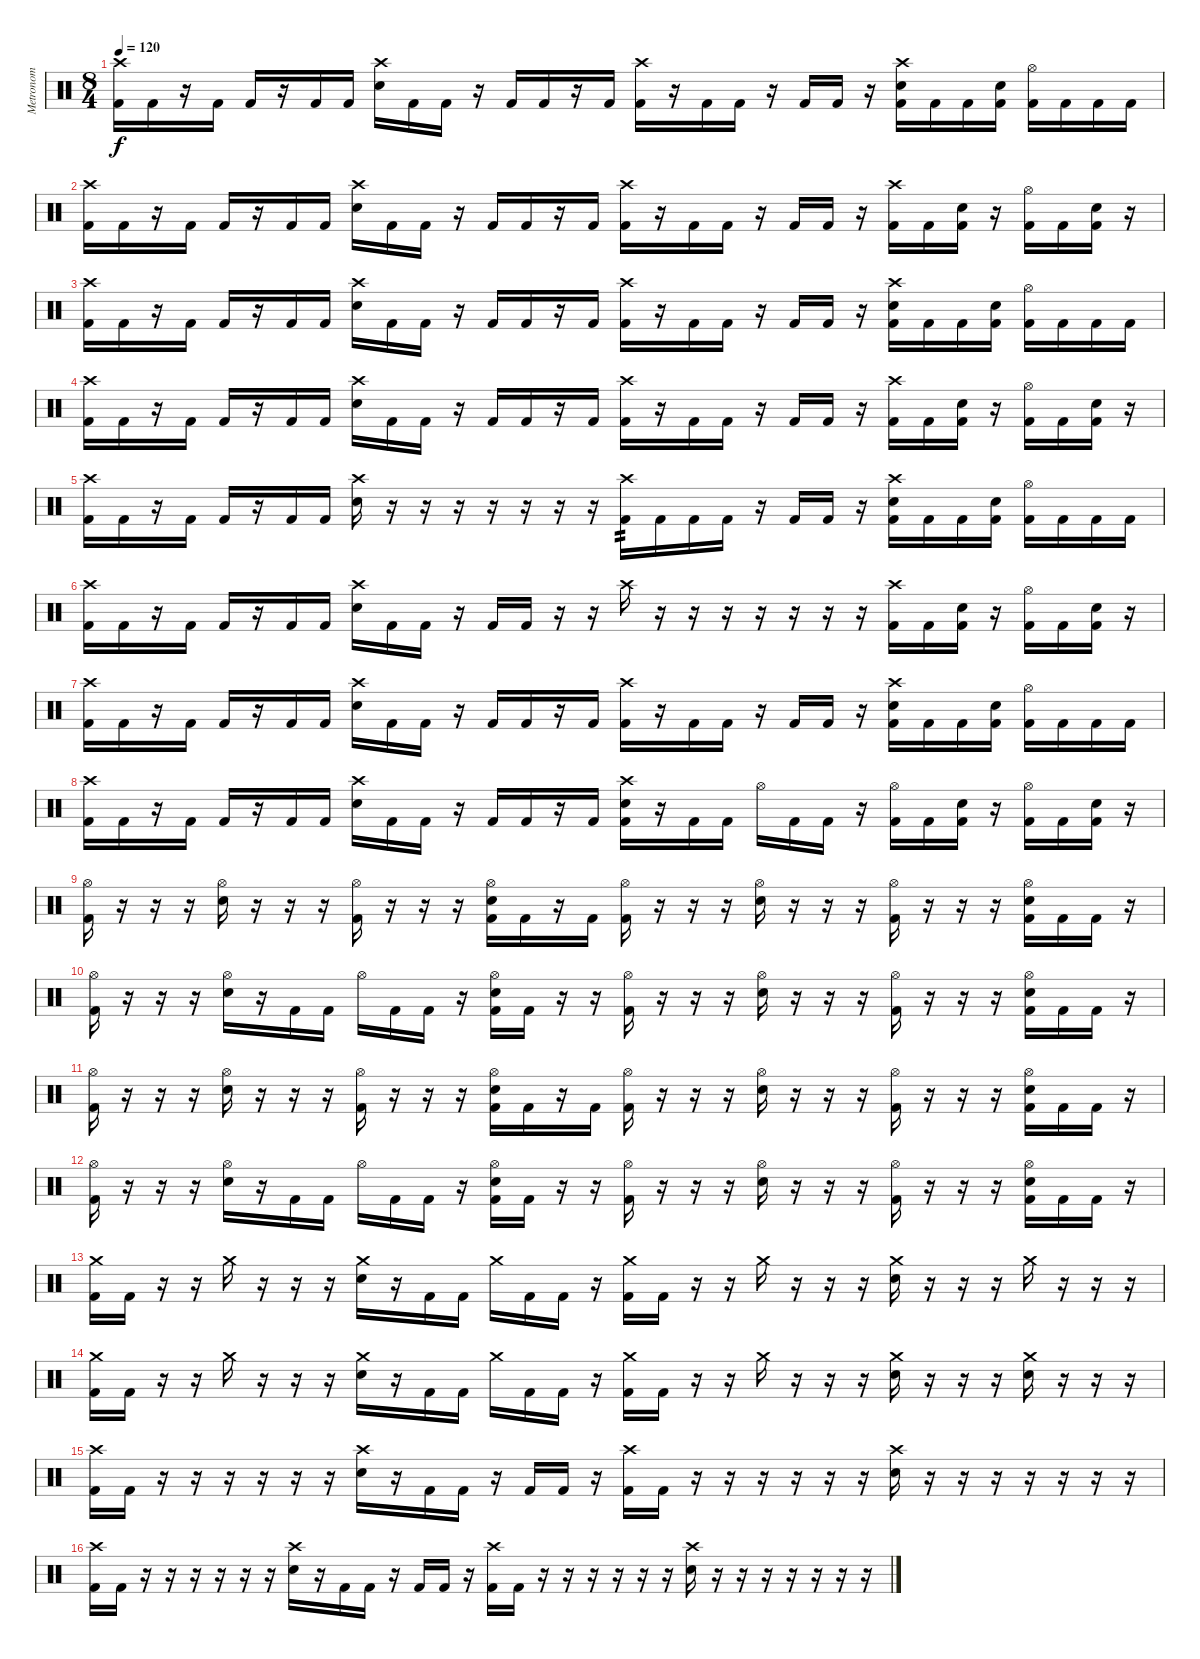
\track ("Metronom" "Metronom") {instrument percussion}
\staff
\articulation defaults
\ts (8 4)
\tempo 120
\clef neutral
\ks c
("Crash high (hit)" "Kick (hit) 2").16{dy f} "Kick (hit) 2".16 r.16 "Kick (hit) 2".16 "Kick (hit) 2".16 r.16 "Kick (hit) 2".16 "Kick (hit) 2".16 ("Crash high (hit)" "Electric Snare (hit)").16 "Kick (hit) 2".16 "Kick (hit) 2".16 r.16 "Kick (hit) 2".16 "Kick (hit) 2".16 r.16 "Kick (hit) 2".16 ("Crash high (hit)" "Kick (hit) 2").16 r.16 "Kick (hit) 2".16 "Kick (hit) 2".16 r.16 "Kick (hit) 2".16 "Kick (hit) 2".16 r.16 ("Crash high (hit)" "Electric Snare (hit)" "Kick (hit) 2").16 "Kick (hit) 2".16 "Kick (hit) 2".16 ("Electric Snare (hit)" "Kick (hit) 2").16 ("Hi-Hat (open)" "Kick (hit) 2").16 "Kick (hit) 2".16 "Kick (hit) 2".16 "Kick (hit) 2".16 |
("Crash high (hit)" "Kick (hit) 2").16 "Kick (hit) 2".16 r.16 "Kick (hit) 2".16 "Kick (hit) 2".16 r.16 "Kick (hit) 2".16 "Kick (hit) 2".16 ("Crash high (hit)" "Electric Snare (hit)").16 "Kick (hit) 2".16 "Kick (hit) 2".16 r.16 "Kick (hit) 2".16 "Kick (hit) 2".16 r.16 "Kick (hit) 2".16 ("Crash high (hit)" "Kick (hit) 2").16 r.16 "Kick (hit) 2".16 "Kick (hit) 2".16 r.16 "Kick (hit) 2".16 "Kick (hit) 2".16 r.16 ("Crash high (hit)" "Kick (hit) 2").16 "Kick (hit) 2".16 ("Electric Snare (hit)" "Kick (hit) 2").16 r.16 ("Hi-Hat (open)" "Kick (hit) 2").16 "Kick (hit) 2".16 ("Electric Snare (hit)" "Kick (hit) 2").16 r.16 |
("Crash high (hit)" "Kick (hit) 2").16 "Kick (hit) 2".16 r.16 "Kick (hit) 2".16 "Kick (hit) 2".16 r.16 "Kick (hit) 2".16 "Kick (hit) 2".16 ("Crash high (hit)" "Electric Snare (hit)").16 "Kick (hit) 2".16 "Kick (hit) 2".16 r.16 "Kick (hit) 2".16 "Kick (hit) 2".16 r.16 "Kick (hit) 2".16 ("Crash high (hit)" "Kick (hit) 2").16 r.16 "Kick (hit) 2".16 "Kick (hit) 2".16 r.16 "Kick (hit) 2".16 "Kick (hit) 2".16 r.16 ("Crash high (hit)" "Electric Snare (hit)" "Kick (hit) 2").16 "Kick (hit) 2".16 "Kick (hit) 2".16 ("Electric Snare (hit)" "Kick (hit) 2").16 ("Hi-Hat (open)" "Kick (hit) 2").16 "Kick (hit) 2".16 "Kick (hit) 2".16 "Kick (hit) 2".16 |
("Crash high (hit)" "Kick (hit) 2").16 "Kick (hit) 2".16 r.16 "Kick (hit) 2".16 "Kick (hit) 2".16 r.16 "Kick (hit) 2".16 "Kick (hit) 2".16 ("Crash high (hit)" "Electric Snare (hit)").16 "Kick (hit) 2".16 "Kick (hit) 2".16 r.16 "Kick (hit) 2".16 "Kick (hit) 2".16 r.16 "Kick (hit) 2".16 ("Crash high (hit)" "Kick (hit) 2").16 r.16 "Kick (hit) 2".16 "Kick (hit) 2".16 r.16 "Kick (hit) 2".16 "Kick (hit) 2".16 r.16 ("Crash high (hit)" "Kick (hit) 2").16 "Kick (hit) 2".16 ("Electric Snare (hit)" "Kick (hit) 2").16 r.16 ("Hi-Hat (open)" "Kick (hit) 2").16 "Kick (hit) 2".16 ("Electric Snare (hit)" "Kick (hit) 2").16 r.16 |
("Crash high (hit)" "Kick (hit) 2").16 "Kick (hit) 2".16 r.16 "Kick (hit) 2".16 "Kick (hit) 2".16 r.16 "Kick (hit) 2".16 "Kick (hit) 2".16 ("Crash high (hit)" "Electric Snare (hit)").16 r.16 r.16 r.16 r.16 r.16 r.16 r.16 ("Crash high (hit)" "Kick (hit) 2").16{tp 2} "Kick (hit) 2".16 "Kick (hit) 2".16 "Kick (hit) 2".16 r.16 "Kick (hit) 2".16 "Kick (hit) 2".16 r.16 ("Crash high (hit)" "Electric Snare (hit)" "Kick (hit) 2").16 "Kick (hit) 2".16 "Kick (hit) 2".16 ("Electric Snare (hit)" "Kick (hit) 2").16 ("Hi-Hat (open)" "Kick (hit) 2").16 "Kick (hit) 2".16 "Kick (hit) 2".16 "Kick (hit) 2".16 |
("Crash high (hit)" "Kick (hit) 2").16 "Kick (hit) 2".16 r.16 "Kick (hit) 2".16 "Kick (hit) 2".16 r.16 "Kick (hit) 2".16 "Kick (hit) 2".16 ("Crash high (hit)" "Electric Snare (hit)").16 "Kick (hit) 2".16 "Kick (hit) 2".16 r.16 "Kick (hit) 2".16 "Kick (hit) 2".16 r.16 r.16 "Crash high (hit)".16 r.16 r.16 r.16 r.16 r.16 r.16 r.16 ("Crash high (hit)" "Kick (hit) 2").16 "Kick (hit) 2".16 ("Electric Snare (hit)" "Kick (hit) 2").16 r.16 ("Hi-Hat (open)" "Kick (hit) 2").16 "Kick (hit) 2".16 ("Electric Snare (hit)" "Kick (hit) 2").16 r.16 |
("Crash high (hit)" "Kick (hit) 2").16 "Kick (hit) 2".16 r.16 "Kick (hit) 2".16 "Kick (hit) 2".16 r.16 "Kick (hit) 2".16 "Kick (hit) 2".16 ("Crash high (hit)" "Electric Snare (hit)").16 "Kick (hit) 2".16 "Kick (hit) 2".16 r.16 "Kick (hit) 2".16 "Kick (hit) 2".16 r.16 "Kick (hit) 2".16 ("Crash high (hit)" "Kick (hit) 2").16 r.16 "Kick (hit) 2".16 "Kick (hit) 2".16 r.16 "Kick (hit) 2".16 "Kick (hit) 2".16 r.16 ("Crash high (hit)" "Electric Snare (hit)" "Kick (hit) 2").16 "Kick (hit) 2".16 "Kick (hit) 2".16 ("Electric Snare (hit)" "Kick (hit) 2").16 ("Hi-Hat (open)" "Kick (hit) 2").16 "Kick (hit) 2".16 "Kick (hit) 2".16 "Kick (hit) 2".16 |
("Crash high (hit)" "Kick (hit) 2").16 "Kick (hit) 2".16 r.16 "Kick (hit) 2".16 "Kick (hit) 2".16 r.16 "Kick (hit) 2".16 "Kick (hit) 2".16 ("Crash high (hit)" "Electric Snare (hit)").16 "Kick (hit) 2".16 "Kick (hit) 2".16 r.16 "Kick (hit) 2".16 "Kick (hit) 2".16 r.16 "Kick (hit) 2".16 ("Crash high (hit)" "Electric Snare (hit)" "Kick (hit) 2").16 r.16 "Kick (hit) 2".16 "Kick (hit) 2".16 "Hi-Hat (open)".16 "Kick (hit) 2".16 "Kick (hit) 2".16 r.16 ("Hi-Hat (open)" "Kick (hit) 2").16 "Kick (hit) 2".16 ("Electric Snare (hit)" "Kick (hit) 2").16 r.16 ("Hi-Hat (open)" "Kick (hit) 2").16 "Kick (hit) 2".16 ("Electric Snare (hit)" "Kick (hit) 2").16 r.16 |
("Hi-Hat (open)" "Kick (hit) 2").16 r.16 r.16 r.16 ("Hi-Hat (open)" "Electric Snare (hit)").16 r.16 r.16 r.16 ("Hi-Hat (open)" "Kick (hit) 2").16 r.16 r.16 r.16 ("Hi-Hat (open)" "Electric Snare (hit)" "Kick (hit) 2").16 "Kick (hit) 2".16 r.16 "Kick (hit) 2".16 ("Hi-Hat (open)" "Kick (hit) 2").16 r.16 r.16 r.16 ("Hi-Hat (open)" "Electric Snare (hit)").16 r.16 r.16 r.16 ("Hi-Hat (open)" "Kick (hit) 2").16 r.16 r.16 r.16 ("Hi-Hat (open)" "Electric Snare (hit)" "Kick (hit) 2").16 "Kick (hit) 2".16 "Kick (hit) 2".16 r.16 |
("Hi-Hat (open)" "Kick (hit) 2").16 r.16 r.16 r.16 ("Hi-Hat (open)" "Electric Snare (hit)").16 r.16 "Kick (hit) 2".16 "Kick (hit) 2".16 "Hi-Hat (open)".16 "Kick (hit) 2".16 "Kick (hit) 2".16 r.16 ("Hi-Hat (open)" "Electric Snare (hit)" "Kick (hit) 2").16 "Kick (hit) 2".16 r.16 r.16 ("Hi-Hat (open)" "Kick (hit) 2").16 r.16 r.16 r.16 ("Hi-Hat (open)" "Electric Snare (hit)").16 r.16 r.16 r.16 ("Hi-Hat (open)" "Kick (hit) 2").16 r.16 r.16 r.16 ("Hi-Hat (open)" "Electric Snare (hit)" "Kick (hit) 2").16 "Kick (hit) 2".16 "Kick (hit) 2".16 r.16 |
("Hi-Hat (open)" "Kick (hit) 2").16 r.16 r.16 r.16 ("Hi-Hat (open)" "Electric Snare (hit)").16 r.16 r.16 r.16 ("Hi-Hat (open)" "Kick (hit) 2").16 r.16 r.16 r.16 ("Hi-Hat (open)" "Electric Snare (hit)" "Kick (hit) 2").16 "Kick (hit) 2".16 r.16 "Kick (hit) 2".16 ("Hi-Hat (open)" "Kick (hit) 2").16 r.16 r.16 r.16 ("Hi-Hat (open)" "Electric Snare (hit)").16 r.16 r.16 r.16 ("Hi-Hat (open)" "Kick (hit) 2").16 r.16 r.16 r.16 ("Hi-Hat (open)" "Electric Snare (hit)" "Kick (hit) 2").16 "Kick (hit) 2".16 "Kick (hit) 2".16 r.16 |
("Hi-Hat (open)" "Kick (hit) 2").16 r.16 r.16 r.16 ("Hi-Hat (open)" "Electric Snare (hit)").16 r.16 "Kick (hit) 2".16 "Kick (hit) 2".16 "Hi-Hat (open)".16 "Kick (hit) 2".16 "Kick (hit) 2".16 r.16 ("Hi-Hat (open)" "Electric Snare (hit)" "Kick (hit) 2").16 "Kick (hit) 2".16 r.16 r.16 ("Hi-Hat (open)" "Kick (hit) 2").16 r.16 r.16 r.16 ("Hi-Hat (open)" "Electric Snare (hit)").16 r.16 r.16 r.16 ("Hi-Hat (open)" "Kick (hit) 2").16 r.16 r.16 r.16 ("Hi-Hat (open)" "Electric Snare (hit)" "Kick (hit) 2").16 "Kick (hit) 2".16 "Kick (hit) 2".16 r.16 |
("Crash medium (hit)" "Kick (hit) 2").16 "Kick (hit) 2".16 r.16 r.16 "Crash medium (hit)".16 r.16 r.16 r.16 ("Crash medium (hit)" "Electric Snare (hit)").16 r.16 "Kick (hit) 2".16 "Kick (hit) 2".16 "Crash medium (hit)".16 "Kick (hit) 2".16 "Kick (hit) 2".16 r.16 ("Crash medium (hit)" "Kick (hit) 2").16 "Kick (hit) 2".16 r.16 r.16 "Crash medium (hit)".16 r.16 r.16 r.16 ("Crash medium (hit)" "Electric Snare (hit)").16 r.16 r.16 r.16 "Crash medium (hit)".16 r.16 r.16 r.16 |
("Crash medium (hit)" "Kick (hit) 2").16 "Kick (hit) 2".16 r.16 r.16 "Crash medium (hit)".16 r.16 r.16 r.16 ("Crash medium (hit)" "Electric Snare (hit)").16 r.16 "Kick (hit) 2".16 "Kick (hit) 2".16 "Crash medium (hit)".16 "Kick (hit) 2".16 "Kick (hit) 2".16 r.16 ("Crash medium (hit)" "Kick (hit) 2").16 "Kick (hit) 2".16 r.16 r.16 "Crash medium (hit)".16 r.16 r.16 r.16 ("Crash medium (hit)" "Electric Snare (hit)").16 r.16 r.16 r.16 ("Crash medium (hit)" "Electric Snare (hit)").16 r.16 r.16 r.16 |
("Crash high (hit)" "Kick (hit) 2").16 "Kick (hit) 2".16 r.16 r.16 r.16 r.16 r.16 r.16 ("Crash high (hit)" "Electric Snare (hit)").16 r.16 "Kick (hit) 2".16 "Kick (hit) 2".16 r.16 "Kick (hit) 2".16 "Kick (hit) 2".16 r.16 ("Crash high (hit)" "Kick (hit) 2").16 "Kick (hit) 2".16 r.16 r.16 r.16 r.16 r.16 r.16 ("Crash high (hit)" "Electric Snare (hit)").16 r.16 r.16 r.16 r.16 r.16 r.16 r.16 |
("Crash high (hit)" "Kick (hit) 2").16 "Kick (hit) 2".16 r.16 r.16 r.16 r.16 r.16 r.16 ("Crash high (hit)" "Electric Snare (hit)").16 r.16 "Kick (hit) 2".16 "Kick (hit) 2".16 r.16 "Kick (hit) 2".16 "Kick (hit) 2".16 r.16 ("Crash high (hit)" "Kick (hit) 2").16 "Kick (hit) 2".16 r.16 r.16 r.16 r.16 r.16 r.16 ("Crash high (hit)" "Electric Snare (hit)").16 r.16 r.16 r.16 r.16 r.16 r.16 r.16
